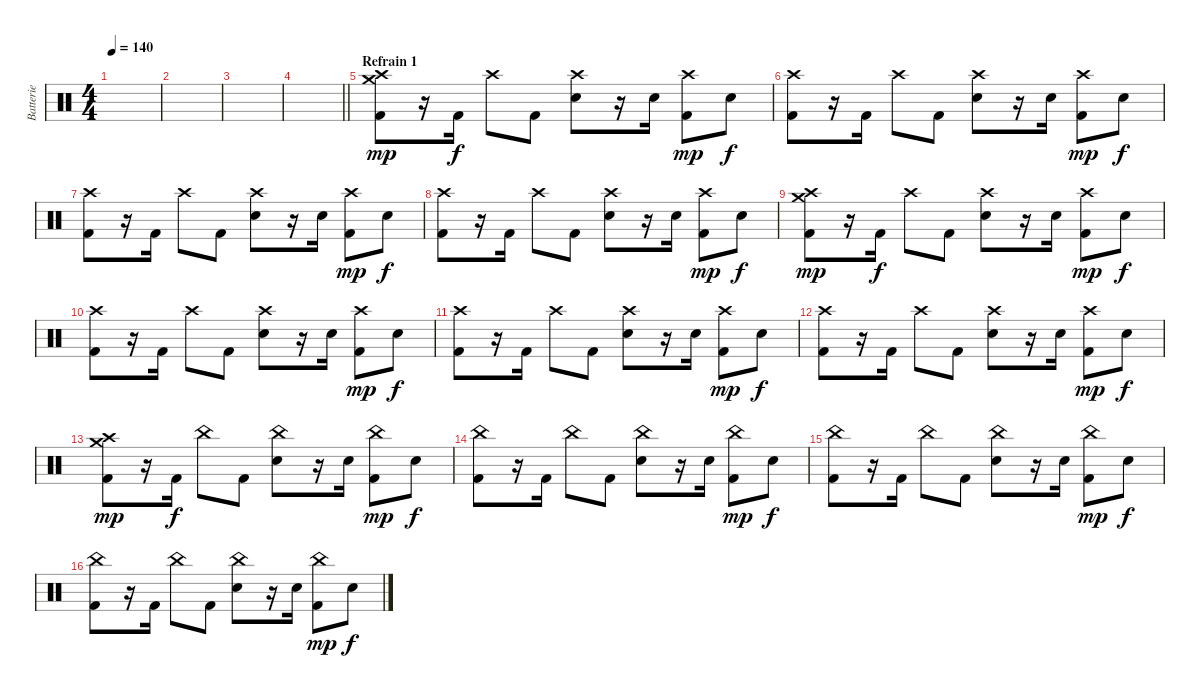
\track ("Batterie" "Batterie") {instrument percussion}
\staff {score}
\articulation defaults
\ts (4 4)
\tempo 140
\clef neutral
\ks c
|
|
|
\barLineRight lightlight
|
\section ("" "Refrain 1")
("Kick (hit) 2" "Crash medium (hit)" "Crash high (hit)").8{dy mp} r.16 "Kick (hit) 2".16{dy f} "Crash high (hit)".8 "Kick (hit) 2".8 ("Electric Snare (hit)" "Crash high (hit)").8 r.16 "Electric Snare (hit)".16 ("Kick (hit) 2" "Crash high (hit)").8{dy mp} "Electric Snare (hit)".8{dy f} |
("Kick (hit) 2" "Crash high (hit)").8 r.16 "Kick (hit) 2".16 "Crash high (hit)".8 "Kick (hit) 2".8 ("Electric Snare (hit)" "Crash high (hit)").8 r.16 "Electric Snare (hit)".16 ("Kick (hit) 2" "Crash high (hit)").8{dy mp} "Electric Snare (hit)".8{dy f} |
("Kick (hit) 2" "Crash high (hit)").8 r.16 "Kick (hit) 2".16 "Crash high (hit)".8 "Kick (hit) 2".8 ("Electric Snare (hit)" "Crash high (hit)").8 r.16 "Electric Snare (hit)".16 ("Kick (hit) 2" "Crash high (hit)").8{dy mp} "Electric Snare (hit)".8{dy f} |
("Kick (hit) 2" "Crash high (hit)").8 r.16 "Kick (hit) 2".16 "Crash high (hit)".8 "Kick (hit) 2".8 ("Electric Snare (hit)" "Crash high (hit)").8 r.16 "Electric Snare (hit)".16 ("Kick (hit) 2" "Crash high (hit)").8{dy mp} "Electric Snare (hit)".8{dy f} |
("Kick (hit) 2" "Crash medium (hit)" "Crash high (hit)").8{dy mp} r.16 "Kick (hit) 2".16{dy f} "Crash high (hit)".8 "Kick (hit) 2".8 ("Electric Snare (hit)" "Crash high (hit)").8 r.16 "Electric Snare (hit)".16 ("Kick (hit) 2" "Crash high (hit)").8{dy mp} "Electric Snare (hit)".8{dy f} |
("Kick (hit) 2" "Crash high (hit)").8 r.16 "Kick (hit) 2".16 "Crash high (hit)".8 "Kick (hit) 2".8 ("Electric Snare (hit)" "Crash high (hit)").8 r.16 "Electric Snare (hit)".16 ("Kick (hit) 2" "Crash high (hit)").8{dy mp} "Electric Snare (hit)".8{dy f} |
("Kick (hit) 2" "Crash high (hit)").8 r.16 "Kick (hit) 2".16 "Crash high (hit)".8 "Kick (hit) 2".8 ("Electric Snare (hit)" "Crash high (hit)").8 r.16 "Electric Snare (hit)".16 ("Kick (hit) 2" "Crash high (hit)").8{dy mp} "Electric Snare (hit)".8{dy f} |
("Kick (hit) 2" "Crash high (hit)").8 r.16 "Kick (hit) 2".16 "Crash high (hit)".8 "Kick (hit) 2".8 ("Electric Snare (hit)" "Crash high (hit)").8 r.16 "Electric Snare (hit)".16 ("Kick (hit) 2" "Crash high (hit)").8{dy mp} "Electric Snare (hit)".8{dy f} |
("Kick (hit) 2" "Crash medium (hit)" "Crash high (hit)").8{dy mp} r.16 "Kick (hit) 2".16{dy f} "China (hit)".8 "Kick (hit) 2".8 ("Electric Snare (hit)" "China (hit)").8 r.16 "Electric Snare (hit)".16 ("Kick (hit) 2" "China (hit)").8{dy mp} "Electric Snare (hit)".8{dy f} |
("Kick (hit) 2" "China (hit)").8 r.16 "Kick (hit) 2".16 "China (hit)".8 "Kick (hit) 2".8 ("Electric Snare (hit)" "China (hit)").8 r.16 "Electric Snare (hit)".16 ("Kick (hit) 2" "China (hit)").8{dy mp} "Electric Snare (hit)".8{dy f} |
("Kick (hit) 2" "China (hit)").8 r.16 "Kick (hit) 2".16 "China (hit)".8 "Kick (hit) 2".8 ("Electric Snare (hit)" "China (hit)").8 r.16 "Electric Snare (hit)".16 ("Kick (hit) 2" "China (hit)").8{dy mp} "Electric Snare (hit)".8{dy f} |
("Kick (hit) 2" "China (hit)").8 r.16 "Kick (hit) 2".16 "China (hit)".8 "Kick (hit) 2".8 ("Electric Snare (hit)" "China (hit)").8 r.16 "Electric Snare (hit)".16 ("Kick (hit) 2" "China (hit)").8{dy mp} "Electric Snare (hit)".8{dy f}
